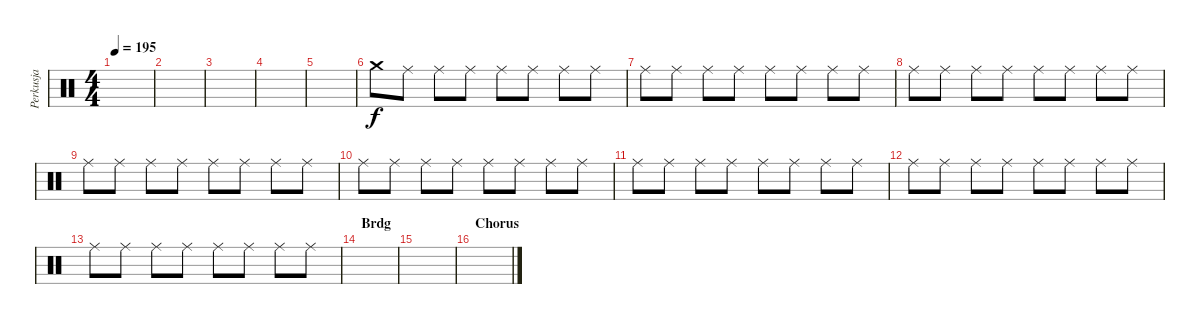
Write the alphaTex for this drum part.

\track ("Perkusja" "Perkusja") {instrument percussion}
\staff {score}
\articulation defaults
\ts (4 4)
\tempo 195
\clef neutral
\ks c
|
|
|
|
|
"Crash medium (hit)".8 "Ride (middle)".8 "Ride (middle)".8 "Ride (middle)".8 "Ride (middle)".8 "Ride (middle)".8 "Ride (middle)".8 "Ride (middle)".8 |
"Ride (middle)".8 "Ride (middle)".8 "Ride (middle)".8 "Ride (middle)".8 "Ride (middle)".8 "Ride (middle)".8 "Ride (middle)".8 "Ride (middle)".8 |
"Ride (middle)".8 "Ride (middle)".8 "Ride (middle)".8 "Ride (middle)".8 "Ride (middle)".8 "Ride (middle)".8 "Ride (middle)".8 "Ride (middle)".8 |
"Ride (middle)".8 "Ride (middle)".8 "Ride (middle)".8 "Ride (middle)".8 "Ride (middle)".8 "Ride (middle)".8 "Ride (middle)".8 "Ride (middle)".8 |
"Ride (middle)".8 "Ride (middle)".8 "Ride (middle)".8 "Ride (middle)".8 "Ride (middle)".8 "Ride (middle)".8 "Ride (middle)".8 "Ride (middle)".8 |
"Ride (middle)".8 "Ride (middle)".8 "Ride (middle)".8 "Ride (middle)".8 "Ride (middle)".8 "Ride (middle)".8 "Ride (middle)".8 "Ride (middle)".8 |
"Ride (middle)".8 "Ride (middle)".8 "Ride (middle)".8 "Ride (middle)".8 "Ride (middle)".8 "Ride (middle)".8 "Ride (middle)".8 "Ride (middle)".8 |
"Ride (middle)".8 "Ride (middle)".8 "Ride (middle)".8 "Ride (middle)".8 "Ride (middle)".8 "Ride (middle)".8 "Ride (middle)".8 "Ride (middle)".8 |
\section ("" "Brdg")
|
|
\section ("" "Chorus")
